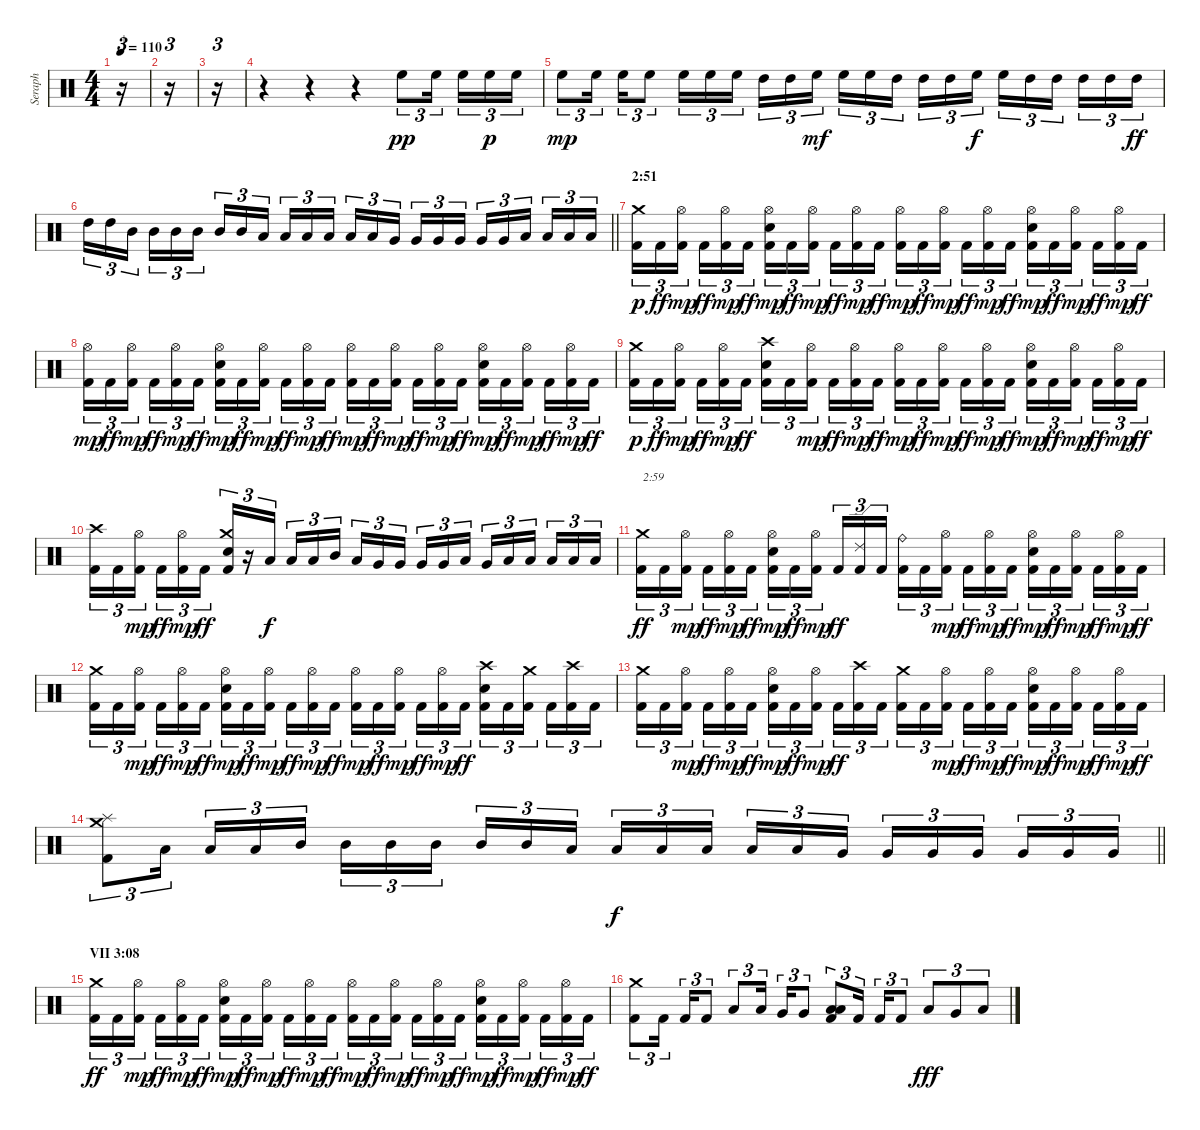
\track ("Seraph" "Seraph") {instrument percussion}
\staff {score}
\articulation defaults
\ts (4 4)
\tempo 110
\clef neutral
\ks c
r.16{tu (3 2) dy ff} |
r.16{tu (3 2)} |
r.16{tu (3 2)} |
r.4 r.4 r.4 "High Floor Tom (hit)".8{tu (3 2) dy pp} "High Floor Tom (hit)".16{tu (3 2) beam splitsecondary} "High Floor Tom (hit)".16{tu (3 2)} "High Floor Tom (hit)".16{tu (3 2) dy p} "High Floor Tom (hit)".16{tu (3 2)} |
"High Floor Tom (hit)".8{tu (3 2) dy mp} "High Floor Tom (hit)".16{tu (3 2) beam splitsecondary} "High Floor Tom (hit)".16{tu (3 2)} "High Floor Tom (hit)".8{tu (3 2)} "High Floor Tom (hit)".16{tu (3 2)} "High Floor Tom (hit)".16{tu (3 2)} "High Floor Tom (hit)".16{tu (3 2) beam splitsecondary} "High Tom (hit)".16{tu (3 2)} "High Tom (hit)".16{tu (3 2)} "High Floor Tom (hit)".16{tu (3 2) dy mf} "High Floor Tom (hit)".16{tu (3 2)} "High Floor Tom (hit)".16{tu (3 2)} "High Tom (hit)".16{tu (3 2) beam splitsecondary} "High Tom (hit)".16{tu (3 2)} "High Tom (hit)".16{tu (3 2)} "High Floor Tom (hit)".16{tu (3 2) dy f} "High Floor Tom (hit)".16{tu (3 2)} "High Tom (hit)".16{tu (3 2)} "High Tom (hit)".16{tu (3 2) beam splitsecondary} "High Tom (hit)".16{tu (3 2)} "High Tom (hit)".16{tu (3 2)} "High Tom (hit)".16{tu (3 2) dy ff} |
\barLineRight lightlight "High Tom (hit)".16{tu (3 2)} "High Tom (hit)".16{tu (3 2)} "Mid Tom (hit)".16{tu (3 2) beam splitsecondary} "Mid Tom (hit)".16{tu (3 2)} "Mid Tom (hit)".16{tu (3 2)} "Mid Tom (hit)".16{tu (3 2)} "Mid Tom (hit)".16{tu (3 2)} "Mid Tom (hit)".16{tu (3 2)} "Low Tom (hit)".16{tu (3 2) beam splitsecondary} "Low Tom (hit)".16{tu (3 2)} "Low Tom (hit)".16{tu (3 2)} "Low Tom (hit)".16{tu (3 2)} "Low Tom (hit)".16{tu (3 2)} "Low Tom (hit)".16{tu (3 2)} "Very Low Tom (hit)".16{tu (3 2) beam splitsecondary} "Very Low Tom (hit)".16{tu (3 2)} "Very Low Tom (hit)".16{tu (3 2)} "Very Low Tom (hit)".16{tu (3 2)} "Very Low Tom (hit)".16{tu (3 2)} "Very Low Tom (hit)".16{tu (3 2)} "Low Floor Tom (hit)".16{tu (3 2) beam splitsecondary} "Low Floor Tom (hit)".16{tu (3 2)} "Low Floor Tom (hit)".16{tu (3 2)} "Low Floor Tom (hit)".16{tu (3 2)}
|
\section ("" "2:51")
("Kick (hit) 2" "Crash medium (hit)").16{tu (3 2) dy p} "Kick (hit) 2".16{tu (3 2) dy ff} ("Kick (hit) 2" "Hi-Hat (open)").16{tu (3 2) dy mp beam splitsecondary} "Kick (hit) 2".16{tu (3 2) dy ff} ("Kick (hit) 2" "Hi-Hat (open)").16{tu (3 2) dy mp} "Kick (hit) 2".16{tu (3 2) dy ff} ("Kick (hit) 2" "Electric Snare (hit)" "Hi-Hat (open)").16{tu (3 2) dy mp} "Kick (hit) 2".16{tu (3 2) dy ff} ("Kick (hit) 2" "Hi-Hat (open)").16{tu (3 2) dy mp beam splitsecondary} "Kick (hit) 2".16{tu (3 2) dy ff} ("Kick (hit) 2" "Hi-Hat (open)").16{tu (3 2) dy mp} "Kick (hit) 2".16{tu (3 2) dy ff} ("Kick (hit) 2" "Hi-Hat (open)").16{tu (3 2) dy mp} "Kick (hit) 2".16{tu (3 2) dy ff} ("Kick (hit) 2" "Hi-Hat (open)").16{tu (3 2) dy mp beam splitsecondary} "Kick (hit) 2".16{tu (3 2) dy ff} ("Kick (hit) 2" "Hi-Hat (open)").16{tu (3 2) dy mp} "Kick (hit) 2".16{tu (3 2) dy ff} ("Kick (hit) 2" "Electric Snare (hit)" "Hi-Hat (open)").16{tu (3 2) dy mp} "Kick (hit) 2".16{tu (3 2) dy ff} ("Kick (hit) 2" "Hi-Hat (open)").16{tu (3 2) dy mp beam splitsecondary} "Kick (hit) 2".16{tu (3 2) dy ff} ("Kick (hit) 2" "Hi-Hat (open)").16{tu (3 2) dy mp} "Kick (hit) 2".16{tu (3 2) dy ff} |
("Kick (hit) 2" "Hi-Hat (open)").16{tu (3 2) dy mp} "Kick (hit) 2".16{tu (3 2) dy ff} ("Kick (hit) 2" "Hi-Hat (open)").16{tu (3 2) dy mp beam splitsecondary} "Kick (hit) 2".16{tu (3 2) dy ff} ("Kick (hit) 2" "Hi-Hat (open)").16{tu (3 2) dy mp} "Kick (hit) 2".16{tu (3 2) dy ff} ("Kick (hit) 2" "Electric Snare (hit)" "Hi-Hat (open)").16{tu (3 2) dy mp} "Kick (hit) 2".16{tu (3 2) dy ff} ("Kick (hit) 2" "Hi-Hat (open)").16{tu (3 2) dy mp beam splitsecondary} "Kick (hit) 2".16{tu (3 2) dy ff} ("Kick (hit) 2" "Hi-Hat (open)").16{tu (3 2) dy mp} "Kick (hit) 2".16{tu (3 2) dy ff} ("Kick (hit) 2" "Hi-Hat (open)").16{tu (3 2) dy mp} "Kick (hit) 2".16{tu (3 2) dy ff} ("Kick (hit) 2" "Hi-Hat (open)").16{tu (3 2) dy mp beam splitsecondary} "Kick (hit) 2".16{tu (3 2) dy ff} ("Kick (hit) 2" "Hi-Hat (open)").16{tu (3 2) dy mp} "Kick (hit) 2".16{tu (3 2) dy ff} ("Kick (hit) 2" "Electric Snare (hit)" "Hi-Hat (open)").16{tu (3 2) dy mp} "Kick (hit) 2".16{tu (3 2) dy ff} ("Kick (hit) 2" "Hi-Hat (open)").16{tu (3 2) dy mp beam splitsecondary} "Kick (hit) 2".16{tu (3 2) dy ff} ("Kick (hit) 2" "Hi-Hat (open)").16{tu (3 2) dy mp} "Kick (hit) 2".16{tu (3 2) dy ff} |
("Kick (hit) 2" "Crash medium (hit)").16{tu (3 2) dy p} "Kick (hit) 2".16{tu (3 2) dy ff} ("Kick (hit) 2" "Hi-Hat (open)").16{tu (3 2) dy mp beam splitsecondary} "Kick (hit) 2".16{tu (3 2) dy ff} ("Kick (hit) 2" "Hi-Hat (open)").16{tu (3 2) dy mp} "Kick (hit) 2".16{tu (3 2) dy ff} ("Kick (hit) 2" "Electric Snare (hit)" "Crash high (hit)").16{tu (3 2)} "Kick (hit) 2".16{tu (3 2)} ("Kick (hit) 2" "Hi-Hat (open)").16{tu (3 2) dy mp beam splitsecondary} "Kick (hit) 2".16{tu (3 2) dy ff} ("Kick (hit) 2" "Hi-Hat (open)").16{tu (3 2) dy mp} "Kick (hit) 2".16{tu (3 2) dy ff} ("Kick (hit) 2" "Hi-Hat (open)").16{tu (3 2) dy mp} "Kick (hit) 2".16{tu (3 2) dy ff} ("Kick (hit) 2" "Hi-Hat (open)").16{tu (3 2) dy mp beam splitsecondary} "Kick (hit) 2".16{tu (3 2) dy ff} ("Kick (hit) 2" "Hi-Hat (open)").16{tu (3 2) dy mp} "Kick (hit) 2".16{tu (3 2) dy ff} ("Kick (hit) 2" "Electric Snare (hit)" "Hi-Hat (open)").16{tu (3 2) dy mp} "Kick (hit) 2".16{tu (3 2) dy ff} ("Kick (hit) 2" "Hi-Hat (open)").16{tu (3 2) dy mp beam splitsecondary} "Kick (hit) 2".16{tu (3 2) dy ff} ("Kick (hit) 2" "Hi-Hat (open)").16{tu (3 2) dy mp} "Kick (hit) 2".16{tu (3 2) dy ff} |
("Kick (hit) 2" "Crash high (hit)").16{tu (3 2)} "Kick (hit) 2".16{tu (3 2)} ("Kick (hit) 2" "Hi-Hat (open)").16{tu (3 2) dy mp beam splitsecondary} "Kick (hit) 2".16{tu (3 2) dy ff} ("Kick (hit) 2" "Hi-Hat (open)").16{tu (3 2) dy mp} "Kick (hit) 2".16{tu (3 2) dy ff} ("Kick (hit) 2" "Electric Snare (hit)" "Crash medium (hit)").16{tu (3 2)} r.16{tu (3 2)} "Low Tom (hit)".16{tu (3 2) dy f beam splitsecondary} "Low Tom (hit)".16{tu (3 2)} "Low Tom (hit)".16{tu (3 2)} "Mid Tom (hit)".16{tu (3 2)} "Low Tom (hit)".16{tu (3 2)} "Very Low Tom (hit)".16{tu (3 2)} "Very Low Tom (hit)".16{tu (3 2) beam splitsecondary} "Very Low Tom (hit)".16{tu (3 2)} "Very Low Tom (hit)".16{tu (3 2)} "Low Tom (hit)".16{tu (3 2)} "Very Low Tom (hit)".16{tu (3 2)} "Low Floor Tom (hit)".16{tu (3 2)} "Low Floor Tom (hit)".16{tu (3 2) beam splitsecondary} "Low Floor Tom (hit)".16{tu (3 2)} "Low Floor Tom (hit)".16{tu (3 2)} "Low Floor Tom (hit)".16{tu (3 2)} |
("Kick (hit) 2" "Crash medium (hit)").16{tu (3 2) txt "2:59" dy ff} "Kick (hit) 2".16{tu (3 2)} ("Kick (hit) 2" "Hi-Hat (open)").16{tu (3 2) dy mp beam splitsecondary} "Kick (hit) 2".16{tu (3 2) dy ff} ("Kick (hit) 2" "Hi-Hat (open)").16{tu (3 2) dy mp} "Kick (hit) 2".16{tu (3 2) dy ff} ("Kick (hit) 2" "Electric Snare (hit)" "Hi-Hat (open)").16{tu (3 2) dy mp} "Kick (hit) 2".16{tu (3 2) dy ff} ("Kick (hit) 2" "Hi-Hat (open)").16{tu (3 2) dy mp beam splitsecondary} "Kick (hit) 2".16{tu (3 2) dy ff} ("Kick (hit) 2" "Ride (edge) 2").16{tu (3 2)} "Kick (hit) 2".16{tu (3 2)} ("Kick (hit) 2" "Ride (bell)").16{tu (3 2)} "Kick (hit) 2".16{tu (3 2)} ("Kick (hit) 2" "Hi-Hat (open)").16{tu (3 2) dy mp beam splitsecondary} "Kick (hit) 2".16{tu (3 2) dy ff} ("Kick (hit) 2" "Hi-Hat (open)").16{tu (3 2) dy mp} "Kick (hit) 2".16{tu (3 2) dy ff} ("Kick (hit) 2" "Electric Snare (hit)" "Hi-Hat (open)").16{tu (3 2) dy mp} "Kick (hit) 2".16{tu (3 2) dy ff} ("Kick (hit) 2" "Hi-Hat (open)").16{tu (3 2) dy mp beam splitsecondary} "Kick (hit) 2".16{tu (3 2) dy ff} ("Kick (hit) 2" "Hi-Hat (open)").16{tu (3 2) dy mp} "Kick (hit) 2".16{tu (3 2) dy ff} |
("Kick (hit) 2" "Crash medium (hit)").16{tu (3 2)} "Kick (hit) 2".16{tu (3 2)} ("Kick (hit) 2" "Hi-Hat (open)").16{tu (3 2) dy mp beam splitsecondary} "Kick (hit) 2".16{tu (3 2) dy ff} ("Kick (hit) 2" "Hi-Hat (open)").16{tu (3 2) dy mp} "Kick (hit) 2".16{tu (3 2) dy ff} ("Kick (hit) 2" "Electric Snare (hit)" "Hi-Hat (open)").16{tu (3 2) dy mp} "Kick (hit) 2".16{tu (3 2) dy ff} ("Kick (hit) 2" "Hi-Hat (open)").16{tu (3 2) dy mp beam splitsecondary} "Kick (hit) 2".16{tu (3 2) dy ff} ("Kick (hit) 2" "Hi-Hat (open)").16{tu (3 2) dy mp} "Kick (hit) 2".16{tu (3 2) dy ff} ("Kick (hit) 2" "Hi-Hat (open)").16{tu (3 2) dy mp} "Kick (hit) 2".16{tu (3 2) dy ff} ("Kick (hit) 2" "Hi-Hat (open)").16{tu (3 2) dy mp beam splitsecondary} "Kick (hit) 2".16{tu (3 2) dy ff} ("Kick (hit) 2" "Hi-Hat (open)").16{tu (3 2) dy mp} "Kick (hit) 2".16{tu (3 2) dy ff} ("Kick (hit) 2" "Electric Snare (hit)" "Crash high (hit)").16{tu (3 2)} "Kick (hit) 2".16{tu (3 2)} ("Kick (hit) 2" "Crash medium (hit)").16{tu (3 2) beam splitsecondary} "Kick (hit) 2".16{tu (3 2)} ("Kick (hit) 2" "Crash high (hit)").16{tu (3 2)} "Kick (hit) 2".16{tu (3 2)} |
("Kick (hit) 2" "Crash medium (hit)").16{tu (3 2)} "Kick (hit) 2".16{tu (3 2)} ("Kick (hit) 2" "Hi-Hat (open)").16{tu (3 2) dy mp beam splitsecondary} "Kick (hit) 2".16{tu (3 2) dy ff} ("Kick (hit) 2" "Hi-Hat (open)").16{tu (3 2) dy mp} "Kick (hit) 2".16{tu (3 2) dy ff} ("Kick (hit) 2" "Electric Snare (hit)" "Hi-Hat (open)").16{tu (3 2) dy mp} "Kick (hit) 2".16{tu (3 2) dy ff} ("Kick (hit) 2" "Hi-Hat (open)").16{tu (3 2) dy mp beam splitsecondary} "Kick (hit) 2".16{tu (3 2) dy ff} ("Kick (hit) 2" "Crash high (hit)").16{tu (3 2)} "Kick (hit) 2".16{tu (3 2)} ("Kick (hit) 2" "Crash medium (hit)").16{tu (3 2)} "Kick (hit) 2".16{tu (3 2)} ("Kick (hit) 2" "Hi-Hat (open)").16{tu (3 2) dy mp beam splitsecondary} "Kick (hit) 2".16{tu (3 2) dy ff} ("Kick (hit) 2" "Hi-Hat (open)").16{tu (3 2) dy mp} "Kick (hit) 2".16{tu (3 2) dy ff} ("Kick (hit) 2" "Electric Snare (hit)" "Hi-Hat (open)").16{tu (3 2) dy mp} "Kick (hit) 2".16{tu (3 2) dy ff} ("Kick (hit) 2" "Hi-Hat (open)").16{tu (3 2) dy mp beam splitsecondary} "Kick (hit) 2".16{tu (3 2) dy ff} ("Kick (hit) 2" "Hi-Hat (open)").16{tu (3 2) dy mp} "Kick (hit) 2".16{tu (3 2) dy ff} |
\barLineRight lightlight
("Kick (hit) 2" "Splash (hit)" "Crash medium (hit)").8{tu (3 2)} "Low Tom (hit)".16{tu (3 2) beam splitsecondary} "Low Tom (hit)".16{tu (3 2)} "Low Tom (hit)".16{tu (3 2)} "Mid Tom (hit)".16{tu (3 2)} "Mid Tom (hit)".16{tu (3 2)} "Mid Tom (hit)".16{tu (3 2)} "Mid Tom (hit)".16{tu (3 2) beam splitsecondary} "Mid Tom (hit)".16{tu (3 2)} "Mid Tom (hit)".16{tu (3 2)} "Low Tom (hit)".16{tu (3 2)} "Low Tom (hit)".16{tu (3 2) dy f} "Low Tom (hit)".16{tu (3 2)} "Low Tom (hit)".16{tu (3 2) beam splitsecondary} "Low Tom (hit)".16{tu (3 2)} "Low Tom (hit)".16{tu (3 2)} "Very Low Tom (hit)".16{tu (3 2)} "Very Low Tom (hit)".16{tu (3 2)} "Very Low Tom (hit)".16{tu (3 2)} "Very Low Tom (hit)".16{tu (3 2) beam splitsecondary} "Very Low Tom (hit)".16{tu (3 2)} "Very Low Tom (hit)".16{tu (3 2)} "Very Low Tom (hit)".16{tu (3 2)} |
\section ("" "VII 3:08")
("Kick (hit) 2" "Crash medium (hit)").16{tu (3 2) dy ff} "Kick (hit) 2".16{tu (3 2)} ("Kick (hit) 2" "Hi-Hat (open)").16{tu (3 2) dy mp beam splitsecondary} "Kick (hit) 2".16{tu (3 2) dy ff} ("Kick (hit) 2" "Hi-Hat (open)").16{tu (3 2) dy mp} "Kick (hit) 2".16{tu (3 2) dy ff} ("Kick (hit) 2" "Electric Snare (hit)" "Hi-Hat (open)").16{tu (3 2) dy mp} "Kick (hit) 2".16{tu (3 2) dy ff} ("Kick (hit) 2" "Hi-Hat (open)").16{tu (3 2) dy mp beam splitsecondary} "Kick (hit) 2".16{tu (3 2) dy ff} ("Kick (hit) 2" "Hi-Hat (open)").16{tu (3 2) dy mp} "Kick (hit) 2".16{tu (3 2) dy ff} ("Kick (hit) 2" "Hi-Hat (open)").16{tu (3 2) dy mp} "Kick (hit) 2".16{tu (3 2) dy ff} ("Kick (hit) 2" "Hi-Hat (open)").16{tu (3 2) dy mp beam splitsecondary} "Kick (hit) 2".16{tu (3 2) dy ff} ("Kick (hit) 2" "Hi-Hat (open)").16{tu (3 2) dy mp} "Kick (hit) 2".16{tu (3 2) dy ff} ("Kick (hit) 2" "Electric Snare (hit)" "Hi-Hat (open)").16{tu (3 2) dy mp} "Kick (hit) 2".16{tu (3 2) dy ff} ("Kick (hit) 2" "Hi-Hat (open)").16{tu (3 2) dy mp beam splitsecondary} "Kick (hit) 2".16{tu (3 2) dy ff} ("Kick (hit) 2" "Hi-Hat (open)").16{tu (3 2) dy mp} "Kick (hit) 2".16{tu (3 2) dy ff} |
("Kick (hit) 2" "Crash medium (hit)").8{tu (3 2)} "Kick (hit) 2".16{tu (3 2) beam splitsecondary} "Kick (hit) 2".16{tu (3 2)} "Kick (hit) 2".8{tu (3 2)} "Low Tom (hit)".8{tu (3 2)} "Low Tom (hit)".16{tu (3 2) beam splitsecondary} "Very Low Tom (hit)".16{tu (3 2)} "Very Low Tom (hit)".8{tu (3 2)} ("Kick (hit) 2" "Low Floor Tom (hit)" "Low Tom (hit)").8{tu (3 2)} "Kick (hit) 2".16{tu (3 2) beam splitsecondary} "Kick (hit) 2".16{tu (3 2)} "Kick (hit) 2".8{tu (3 2)} "Low Tom (hit)".8{tu (3 2) dy fff} "Very Low Tom (hit)".8{tu (3 2)} "Low Floor Tom (hit)".8{tu (3 2)}
